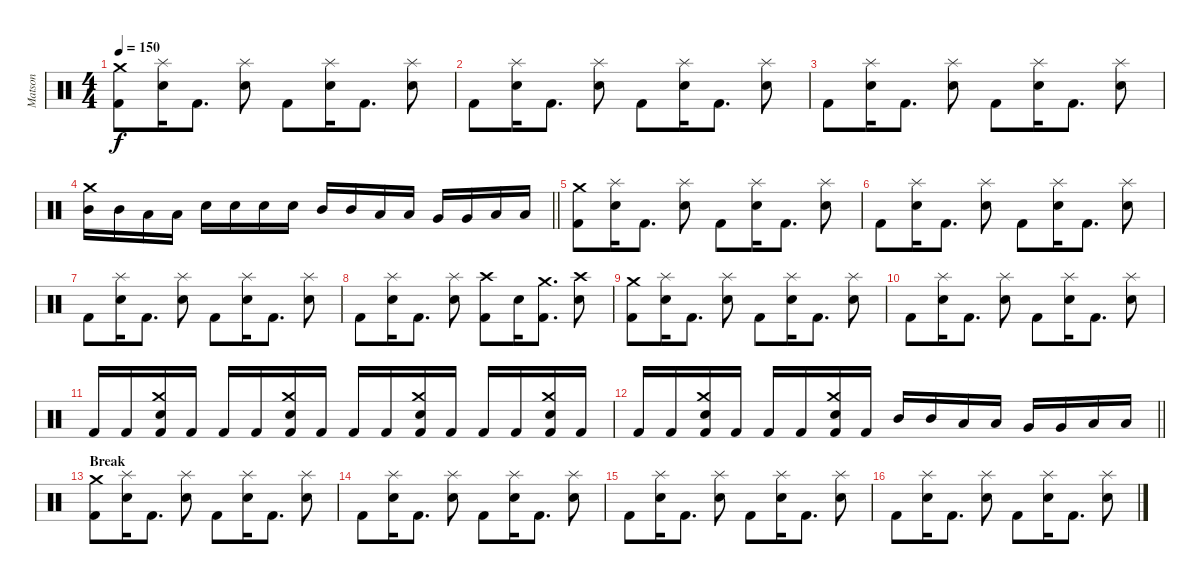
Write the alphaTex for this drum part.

\track ("Matson" "Matson") {instrument percussion}
\staff {score}
\articulation defaults
\ts (4 4)
\tempo 150
\clef neutral
\ks c
("Kick (hit) 2" "Crash medium (hit)").8{dy f} ("Snare (hit) 2" "Splash (hit)").16 "Kick (hit) 2".8{d} ("Snare (hit) 2" "Splash (hit)").8 "Kick (hit) 2".8 ("Snare (hit) 2" "Splash (hit)").16 "Kick (hit) 2".8{d} ("Snare (hit) 2" "Splash (hit)").8 |
"Kick (hit) 2".8 ("Snare (hit) 2" "Splash (hit)").16 "Kick (hit) 2".8{d} ("Snare (hit) 2" "Splash (hit)").8 "Kick (hit) 2".8 ("Snare (hit) 2" "Splash (hit)").16 "Kick (hit) 2".8{d} ("Snare (hit) 2" "Splash (hit)").8 |
"Kick (hit) 2".8 ("Snare (hit) 2" "Splash (hit)").16 "Kick (hit) 2".8{d} ("Snare (hit) 2" "Splash (hit)").8 "Kick (hit) 2".8 ("Snare (hit) 2" "Splash (hit)").16 "Kick (hit) 2".8{d} ("Snare (hit) 2" "Splash (hit)").8 |
\barLineRight lightlight
("Mid Tom (hit)" "Crash medium (hit)").16 "Mid Tom (hit)".16 "Low Tom (hit)".16 "Low Tom (hit)".16 "Snare (hit) 2".16 "Snare (hit) 2".16 "Snare (hit) 2".16 "Snare (hit) 2".16 "Mid Tom (hit)".16 "Mid Tom (hit)".16 "Low Tom (hit)".16 "Low Tom (hit)".16 "Very Low Tom (hit)".16 "Very Low Tom (hit)".16 "Low Floor Tom (hit)".16 "Low Floor Tom (hit)".16 |
\section ("" "")
("Kick (hit) 2" "Crash medium (hit)").8 ("Snare (hit) 2" "Splash (hit)").16 "Kick (hit) 2".8{d} ("Snare (hit) 2" "Splash (hit)").8 "Kick (hit) 2".8 ("Snare (hit) 2" "Splash (hit)").16 "Kick (hit) 2".8{d} ("Snare (hit) 2" "Splash (hit)").8 |
"Kick (hit) 2".8 ("Snare (hit) 2" "Splash (hit)").16 "Kick (hit) 2".8{d} ("Snare (hit) 2" "Splash (hit)").8 "Kick (hit) 2".8 ("Snare (hit) 2" "Splash (hit)").16 "Kick (hit) 2".8{d} ("Snare (hit) 2" "Splash (hit)").8 |
"Kick (hit) 2".8 ("Snare (hit) 2" "Splash (hit)").16 "Kick (hit) 2".8{d} ("Snare (hit) 2" "Splash (hit)").8 "Kick (hit) 2".8 ("Snare (hit) 2" "Splash (hit)").16 "Kick (hit) 2".8{d} ("Snare (hit) 2" "Splash (hit)").8 |
"Kick (hit) 2".8 ("Snare (hit) 2" "Splash (hit)").16 "Kick (hit) 2".8{d} ("Snare (hit) 2" "Splash (hit)").8 ("Kick (hit) 2" "Crash high (hit)").8 "Snare (hit) 2".16 ("Kick (hit) 2" "Crash medium (hit)").8{d} ("Snare (hit) 2" "Crash high (hit)").8 |
("Kick (hit) 2" "Crash medium (hit)").8 ("Snare (hit) 2" "Splash (hit)").16 "Kick (hit) 2".8{d} ("Snare (hit) 2" "Splash (hit)").8 "Kick (hit) 2".8 ("Snare (hit) 2" "Splash (hit)").16 "Kick (hit) 2".8{d} ("Snare (hit) 2" "Splash (hit)").8 |
"Kick (hit) 2".8 ("Snare (hit) 2" "Splash (hit)").16 "Kick (hit) 2".8{d} ("Snare (hit) 2" "Splash (hit)").8 "Kick (hit) 2".8 ("Snare (hit) 2" "Splash (hit)").16 "Kick (hit) 2".8{d} ("Snare (hit) 2" "Splash (hit)").8 |
"Kick (hit) 2".16 "Kick (hit) 2".16 ("Kick (hit) 2" "Snare (hit) 2" "Crash medium (hit)").16 "Kick (hit) 2".16 "Kick (hit) 2".16 "Kick (hit) 2".16 ("Kick (hit) 2" "Snare (hit) 2" "Crash medium (hit)").16 "Kick (hit) 2".16 "Kick (hit) 2".16 "Kick (hit) 2".16 ("Kick (hit) 2" "Snare (hit) 2" "Crash medium (hit)").16 "Kick (hit) 2".16 "Kick (hit) 2".16 "Kick (hit) 2".16 ("Kick (hit) 2" "Snare (hit) 2" "Crash medium (hit)").16 "Kick (hit) 2".16 |
\barLineRight lightlight "Kick (hit) 2".16 "Kick (hit) 2".16
("Kick (hit) 2" "Snare (hit) 2" "Crash medium (hit)").16 "Kick (hit) 2".16 "Kick (hit) 2".16 "Kick (hit) 2".16 ("Kick (hit) 2" "Snare (hit) 2" "Crash medium (hit)").16 "Kick (hit) 2".16 "Mid Tom (hit)".16 "Mid Tom (hit)".16 "Low Tom (hit)".16 "Low Tom (hit)".16 "Very Low Tom (hit)".16 "Very Low Tom (hit)".16 "Low Floor Tom (hit)".16 "Low Floor Tom (hit)".16 |
\section ("" "Break")
("Kick (hit) 2" "Crash medium (hit)").8 ("Snare (hit) 2" "Splash (hit)").16 "Kick (hit) 2".8{d} ("Snare (hit) 2" "Splash (hit)").8 "Kick (hit) 2".8 ("Snare (hit) 2" "Splash (hit)").16 "Kick (hit) 2".8{d} ("Snare (hit) 2" "Splash (hit)").8 |
"Kick (hit) 2".8 ("Snare (hit) 2" "Splash (hit)").16 "Kick (hit) 2".8{d} ("Snare (hit) 2" "Splash (hit)").8 "Kick (hit) 2".8 ("Snare (hit) 2" "Splash (hit)").16 "Kick (hit) 2".8{d} ("Snare (hit) 2" "Splash (hit)").8 |
"Kick (hit) 2".8 ("Snare (hit) 2" "Splash (hit)").16 "Kick (hit) 2".8{d} ("Snare (hit) 2" "Splash (hit)").8 "Kick (hit) 2".8 ("Snare (hit) 2" "Splash (hit)").16 "Kick (hit) 2".8{d} ("Snare (hit) 2" "Splash (hit)").8 |
"Kick (hit) 2".8 ("Snare (hit) 2" "Splash (hit)").16 "Kick (hit) 2".8{d} ("Snare (hit) 2" "Splash (hit)").8 "Kick (hit) 2".8 ("Snare (hit) 2" "Splash (hit)").16 "Kick (hit) 2".8{d} ("Snare (hit) 2" "Splash (hit)").8
